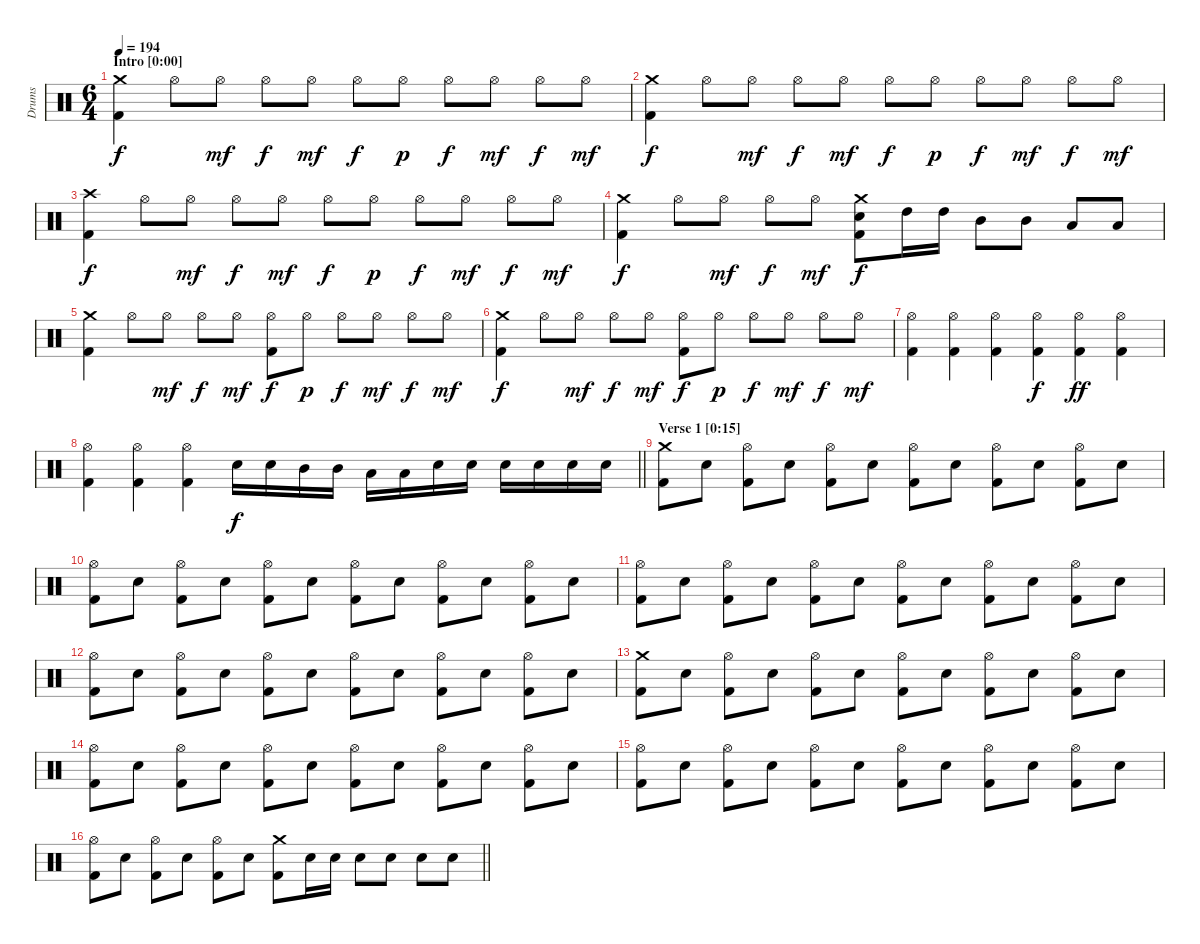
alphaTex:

\track ("Drums" "Drums") {instrument percussion}
\staff {score}
\articulation defaults
\ts (6 4)
\section ("" "Intro [0:00]")
\tempo 194
\clef neutral
\ks c
("Crash medium (hit)" "Kick (hit) 2").4{dy f} "Hi-Hat (open)".8 "Hi-Hat (open)".8{dy mf} "Hi-Hat (open)".8{dy f} "Hi-Hat (open)".8{dy mf} "Hi-Hat (open)".8{dy f} "Hi-Hat (open)".8{dy p} "Hi-Hat (open)".8{dy f} "Hi-Hat (open)".8{dy mf} "Hi-Hat (open)".8{dy f} "Hi-Hat (open)".8{dy mf} |
("Crash medium (hit)" "Kick (hit) 2").4{dy f} "Hi-Hat (open)".8 "Hi-Hat (open)".8{dy mf} "Hi-Hat (open)".8{dy f} "Hi-Hat (open)".8{dy mf} "Hi-Hat (open)".8{dy f} "Hi-Hat (open)".8{dy p} "Hi-Hat (open)".8{dy f} "Hi-Hat (open)".8{dy mf} "Hi-Hat (open)".8{dy f} "Hi-Hat (open)".8{dy mf} |
("Crash high (hit)" "Kick (hit) 2").4{dy f} "Hi-Hat (open)".8 "Hi-Hat (open)".8{dy mf} "Hi-Hat (open)".8{dy f} "Hi-Hat (open)".8{dy mf} "Hi-Hat (open)".8{dy f} "Hi-Hat (open)".8{dy p} "Hi-Hat (open)".8{dy f} "Hi-Hat (open)".8{dy mf} "Hi-Hat (open)".8{dy f} "Hi-Hat (open)".8{dy mf} |
("Crash medium (hit)" "Kick (hit) 2").4{dy f} "Hi-Hat (open)".8 "Hi-Hat (open)".8{dy mf} "Hi-Hat (open)".8{dy f} "Hi-Hat (open)".8{dy mf} ("Crash medium (hit)" "Electric Snare (hit)" "Kick (hit) 2").8{dy f} "High Tom (hit)".16 "High Tom (hit)".16 "Mid Tom (hit)".8 "Mid Tom (hit)".8 "Low Tom (hit)".8 "Low Tom (hit)".8 |
("Crash medium (hit)" "Kick (hit) 2").4 "Hi-Hat (open)".8 "Hi-Hat (open)".8{dy mf} "Hi-Hat (open)".8{dy f} "Hi-Hat (open)".8{dy mf} ("Hi-Hat (open)" "Kick (hit) 2").8{dy f} "Hi-Hat (open)".8{dy p} "Hi-Hat (open)".8{dy f} "Hi-Hat (open)".8{dy mf} "Hi-Hat (open)".8{dy f} "Hi-Hat (open)".8{dy mf} |
("Crash medium (hit)" "Kick (hit) 2").4{dy f} "Hi-Hat (open)".8 "Hi-Hat (open)".8{dy mf} "Hi-Hat (open)".8{dy f} "Hi-Hat (open)".8{dy mf} ("Hi-Hat (open)" "Kick (hit) 2").8{dy f} "Hi-Hat (open)".8{dy p} "Hi-Hat (open)".8{dy f} "Hi-Hat (open)".8{dy mf} "Hi-Hat (open)".8{dy f} "Hi-Hat (open)".8{dy mf} |
("Hi-Hat (open)" "Kick (hit) 2").4 ("Hi-Hat (open)" "Kick (hit) 2").4 ("Hi-Hat (open)" "Kick (hit) 2").4 ("Hi-Hat (open)" "Kick (hit) 2").4{dy f} ("Hi-Hat (open)" "Kick (hit) 2").4{dy ff} ("Hi-Hat (open)" "Kick (hit) 2").4 |
\barLineRight lightlight
("Hi-Hat (open)" "Kick (hit) 2").4 ("Hi-Hat (open)" "Kick (hit) 2").4 ("Hi-Hat (open)" "Kick (hit) 2").4 "Electric Snare (hit)".16{dy f} "Electric Snare (hit)".16 "Mid Tom (hit)".16 "Mid Tom (hit)".16 "Low Tom (hit)".16 "Low Tom (hit)".16 "Electric Snare (hit)".16 "Electric Snare (hit)".16 "Electric Snare (hit)".16 "Electric Snare (hit)".16 "Electric Snare (hit)".16 "Electric Snare (hit)".16 |
\section ("" "Verse 1 [0:15]")
("Crash medium (hit)" "Kick (hit) 2").8 "Electric Snare (hit)".8 ("Hi-Hat (open)" "Kick (hit) 2").8 "Electric Snare (hit)".8 ("Hi-Hat (open)" "Kick (hit) 2").8 "Electric Snare (hit)".8 ("Hi-Hat (open)" "Kick (hit) 2").8 "Electric Snare (hit)".8 ("Hi-Hat (open)" "Kick (hit) 2").8 "Electric Snare (hit)".8 ("Hi-Hat (open)" "Kick (hit) 2").8 "Electric Snare (hit)".8 |
("Hi-Hat (open)" "Kick (hit) 2").8 "Electric Snare (hit)".8 ("Hi-Hat (open)" "Kick (hit) 2").8 "Electric Snare (hit)".8 ("Hi-Hat (open)" "Kick (hit) 2").8 "Electric Snare (hit)".8 ("Hi-Hat (open)" "Kick (hit) 2").8 "Electric Snare (hit)".8 ("Hi-Hat (open)" "Kick (hit) 2").8 "Electric Snare (hit)".8 ("Hi-Hat (open)" "Kick (hit) 2").8 "Electric Snare (hit)".8 |
("Hi-Hat (open)" "Kick (hit) 2").8 "Electric Snare (hit)".8 ("Hi-Hat (open)" "Kick (hit) 2").8 "Electric Snare (hit)".8 ("Hi-Hat (open)" "Kick (hit) 2").8 "Electric Snare (hit)".8 ("Hi-Hat (open)" "Kick (hit) 2").8 "Electric Snare (hit)".8 ("Hi-Hat (open)" "Kick (hit) 2").8 "Electric Snare (hit)".8 ("Hi-Hat (open)" "Kick (hit) 2").8 "Electric Snare (hit)".8 |
("Hi-Hat (open)" "Kick (hit) 2").8 "Electric Snare (hit)".8 ("Hi-Hat (open)" "Kick (hit) 2").8 "Electric Snare (hit)".8 ("Hi-Hat (open)" "Kick (hit) 2").8 "Electric Snare (hit)".8 ("Hi-Hat (open)" "Kick (hit) 2").8 "Electric Snare (hit)".8 ("Hi-Hat (open)" "Kick (hit) 2").8 "Electric Snare (hit)".8 ("Hi-Hat (open)" "Kick (hit) 2").8 "Electric Snare (hit)".8 |
("Crash medium (hit)" "Kick (hit) 2").8 "Electric Snare (hit)".8 ("Hi-Hat (open)" "Kick (hit) 2").8 "Electric Snare (hit)".8 ("Hi-Hat (open)" "Kick (hit) 2").8 "Electric Snare (hit)".8 ("Hi-Hat (open)" "Kick (hit) 2").8 "Electric Snare (hit)".8 ("Hi-Hat (open)" "Kick (hit) 2").8 "Electric Snare (hit)".8 ("Hi-Hat (open)" "Kick (hit) 2").8 "Electric Snare (hit)".8 |
("Hi-Hat (open)" "Kick (hit) 2").8 "Electric Snare (hit)".8 ("Hi-Hat (open)" "Kick (hit) 2").8 "Electric Snare (hit)".8 ("Hi-Hat (open)" "Kick (hit) 2").8 "Electric Snare (hit)".8 ("Hi-Hat (open)" "Kick (hit) 2").8 "Electric Snare (hit)".8 ("Hi-Hat (open)" "Kick (hit) 2").8 "Electric Snare (hit)".8 ("Hi-Hat (open)" "Kick (hit) 2").8 "Electric Snare (hit)".8 |
("Hi-Hat (open)" "Kick (hit) 2").8 "Electric Snare (hit)".8 ("Hi-Hat (open)" "Kick (hit) 2").8 "Electric Snare (hit)".8 ("Hi-Hat (open)" "Kick (hit) 2").8 "Electric Snare (hit)".8 ("Hi-Hat (open)" "Kick (hit) 2").8 "Electric Snare (hit)".8 ("Hi-Hat (open)" "Kick (hit) 2").8 "Electric Snare (hit)".8 ("Hi-Hat (open)" "Kick (hit) 2").8 "Electric Snare (hit)".8 |
\barLineRight lightlight
("Hi-Hat (open)" "Kick (hit) 2").8 "Electric Snare (hit)".8 ("Hi-Hat (open)" "Kick (hit) 2").8 "Electric Snare (hit)".8 ("Hi-Hat (open)" "Kick (hit) 2").8 "Electric Snare (hit)".8 ("Crash medium (hit)" "Kick (hit) 2").8 "Electric Snare (hit)".16 "Electric Snare (hit)".16 "Electric Snare (hit)".8 "Electric Snare (hit)".8 "Electric Snare (hit)".8 "Electric Snare (hit)".8
